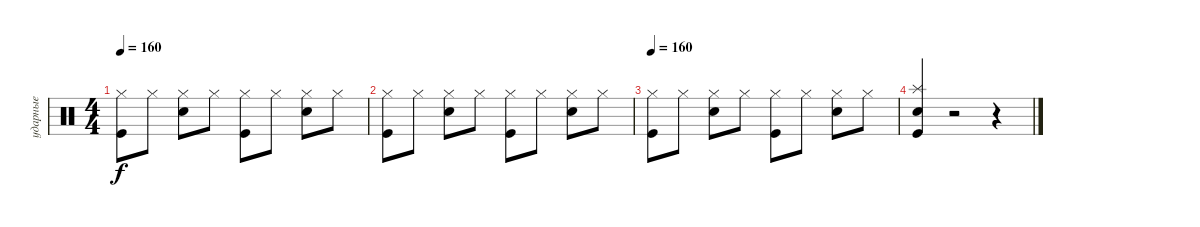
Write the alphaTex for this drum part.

\track ("ударные" "ударные") {instrument percussion}
\staff {score}
\articulation defaults
\ts (4 4)
\tempo 160
\clef neutral
\ks c
("Hi-Hat (closed)" "Kick (hit)").8{dy f} "Hi-Hat (closed)".8 ("Electric Snare (hit)" "Hi-Hat (closed)").8 "Hi-Hat (closed)".8 ("Hi-Hat (closed)" "Kick (hit)").8 "Hi-Hat (closed)".8 ("Hi-Hat (closed)" "Electric Snare (hit)").8 "Hi-Hat (closed)".8 |
("Hi-Hat (closed)" "Kick (hit)").8 "Hi-Hat (closed)".8 ("Hi-Hat (closed)" "Electric Snare (hit)").8 "Hi-Hat (closed)".8 ("Kick (hit)" "Hi-Hat (closed)").8 "Hi-Hat (closed)".8 ("Electric Snare (hit)" "Hi-Hat (closed)").8 "Hi-Hat (closed)".8 |
\tempo 160
("Hi-Hat (closed)" "Kick (hit)").8 "Hi-Hat (closed)".8 ("Hi-Hat (closed)" "Electric Snare (hit)").8 "Hi-Hat (closed)".8 ("Kick (hit)" "Hi-Hat (closed)").8 "Hi-Hat (closed)".8 ("Electric Snare (hit)" "Hi-Hat (closed)").8 "Hi-Hat (closed)".8 |
("Splash (hit)" "Kick (hit)" "Snare (hit) 2").4 r.2 r.4
